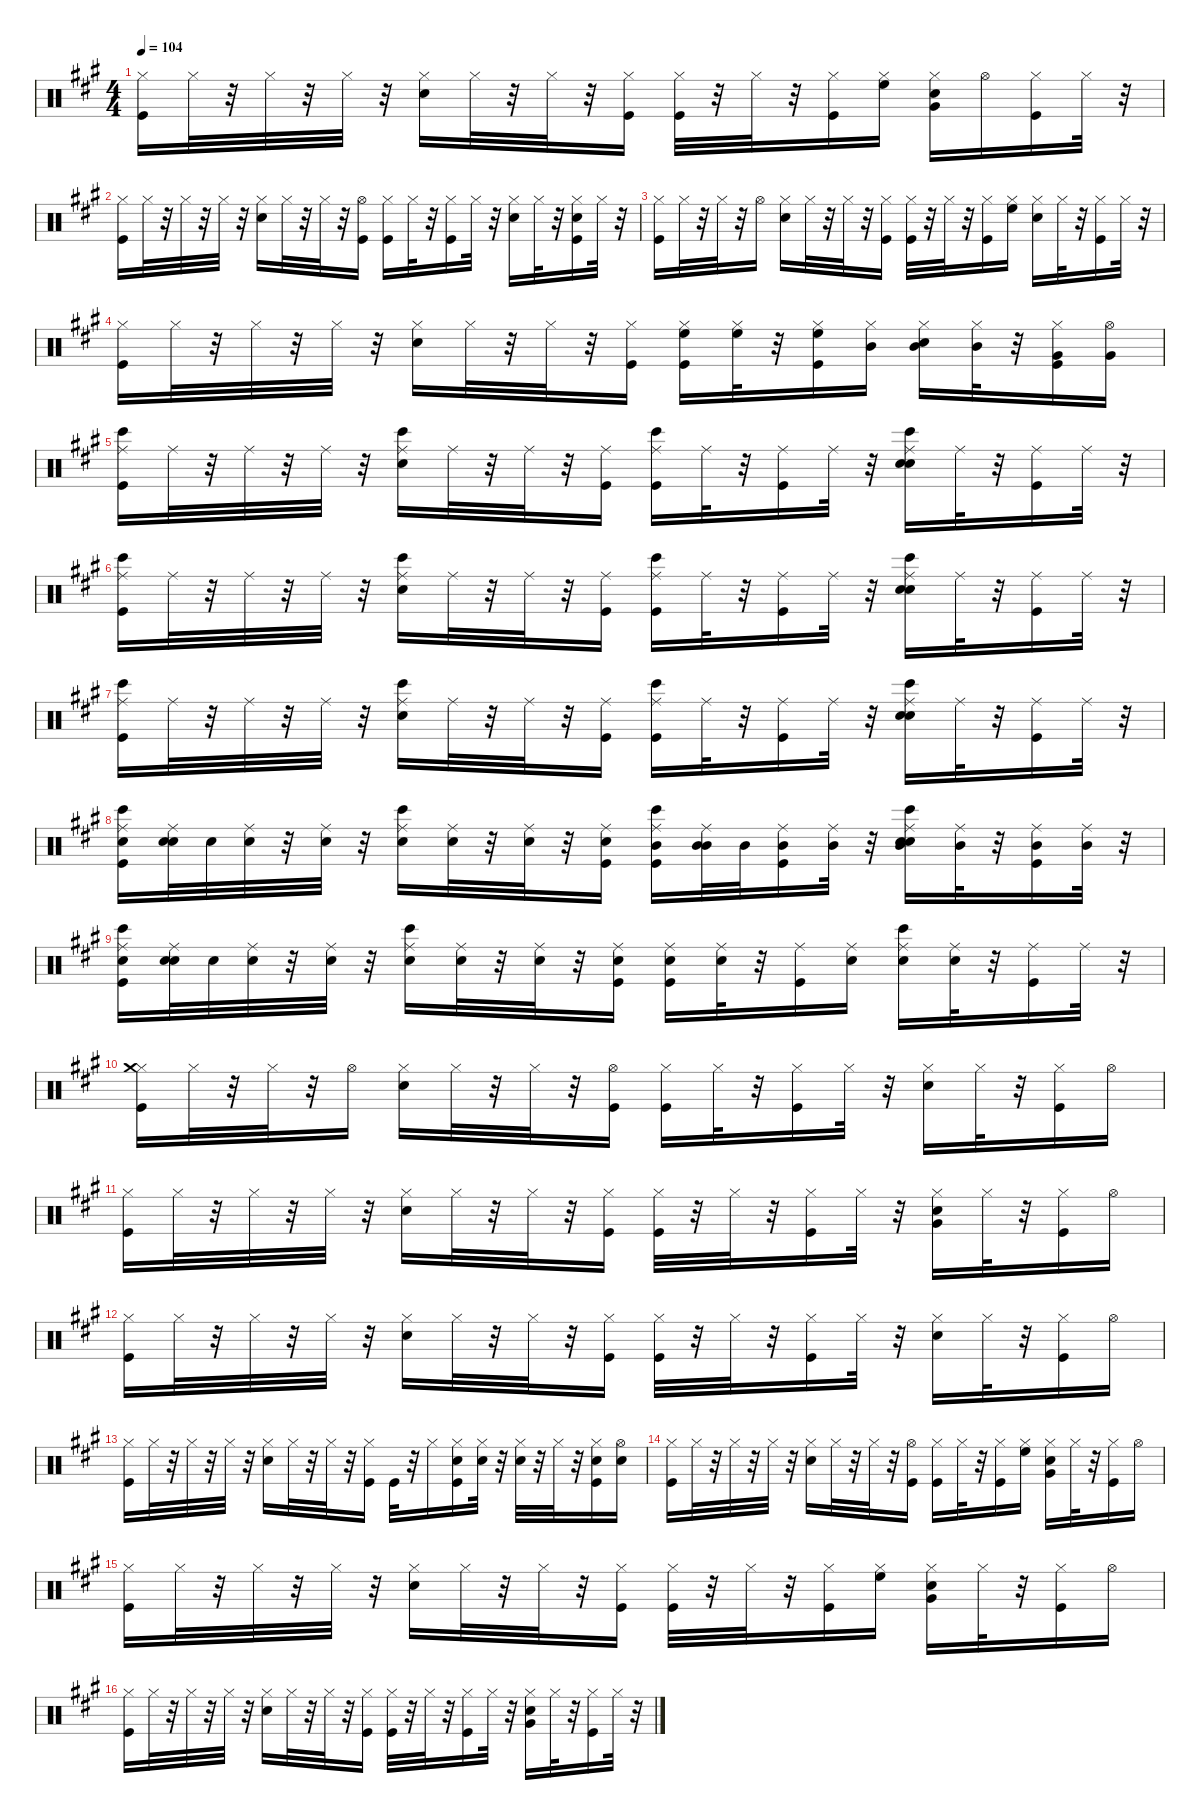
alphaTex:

\defaultSystemsLayout 4
\hideDynamics
\bracketExtendMode nobrackets
\singleTrackTrackNamePolicy hidden
\multiTrackTrackNamePolicy hidden
\otherSystemsTrackNameOrientation horizontal
\track ("Drums   " "drm.") {instrument percussion}
\staff {score}
\articulation defaults
\ts (4 4)
\tempo 104
\clef neutral
\ks a
("Kick (hit)"{acc forcenatural} "Hi-Hat (closed)"{acc forcenatural}).16{dy f beam Down} "Hi-Hat (closed)"{acc forcenatural}.32{dy mp beam Down} r.32{beam Down} "Hi-Hat (closed)"{acc forcenatural}.32{dy f beam Down} r.32{beam Down} "Hi-Hat (closed)"{acc forcenatural}.32{beam Down} r.32{beam Down} ("Snare (hit) 2"{acc forcenatural} "Hi-Hat (closed)"{acc forcenatural}).16{dy fff beam Down} "Hi-Hat (closed)"{acc forcenatural}.32{dy mp beam Down} r.32{beam Down} "Hi-Hat (closed)"{acc forcenatural}.32{dy f beam Down} r.32{beam Down} ("Kick (hit)"{acc forcenatural} "Hi-Hat (closed)"{acc forcenatural}).16{dy mf beam Down} ("Kick (hit)"{acc forcenatural} "Hi-Hat (closed)"{acc forcenatural}).32{dy f beam Down} r.32{beam Down} "Hi-Hat (closed)"{acc forcenatural}.32{dy mp beam Down} r.32{beam Down} ("Kick (hit)"{acc forcenatural} "Hi-Hat (closed)"{acc forcenatural}).16{dy f beam Down} ("Hi-Hat (closed)"{acc forcenatural} "High Floor Tom (hit)"{acc forcenatural}).16{beam Down} ("Snare (hit) 2"{acc forcenatural} "Hi-Hat (closed)"{acc forcenatural} "Very Low Tom (hit)"{acc forcenatural}).16{dy fff beam Down} "Hi-Hat (open)"{acc forcenatural}.16{dy mp beam Down} ("Kick (hit)"{acc forcenatural} "Hi-Hat (closed)"{acc forcenatural}).16{dy f beam Down} "Hi-Hat (closed)"{acc forcenatural}.32{beam Down} r.32{beam Down} |
("Kick (hit)"{acc forcenatural} "Hi-Hat (closed)"{acc forcenatural}).16{beam Down} "Hi-Hat (closed)"{acc forcenatural}.32{dy mp beam Down} r.32{beam Down} "Hi-Hat (closed)"{acc forcenatural}.32{dy f beam Down} r.32{beam Down} "Hi-Hat (closed)"{acc forcenatural}.32{beam Down} r.32{beam Down} ("Snare (hit) 2"{acc forcenatural} "Hi-Hat (closed)"{acc forcenatural}).16{dy fff beam Down} "Hi-Hat (closed)"{acc forcenatural}.32{dy mp beam Down} r.32{beam Down} "Hi-Hat (closed)"{acc forcenatural}.32{dy f beam Down} r.32{beam Down} ("Kick (hit)"{acc forcenatural} "Hi-Hat (open)"{acc forcenatural}).16{dy mf beam Down} ("Kick (hit)"{acc forcenatural} "Hi-Hat (closed)"{acc forcenatural}).16{dy f beam Down} "Hi-Hat (closed)"{acc forcenatural}.32{dy mp beam Down} r.32{beam Down} ("Kick (hit)"{acc forcenatural} "Hi-Hat (closed)"{acc forcenatural}).16{dy f beam Down} "Hi-Hat (closed)"{acc forcenatural}.32{beam Down} r.32{beam Down} ("Snare (hit) 2"{acc forcenatural} "Hi-Hat (closed)"{acc forcenatural}).16{dy fff beam Down} "Hi-Hat (closed)"{acc forcenatural}.32{dy mp beam Down} r.32{beam Down} ("Kick (hit)"{acc forcenatural} "Snare (hit) 2"{acc forcenatural} "Hi-Hat (closed)"{acc forcenatural}).16{dy f beam Down} "Hi-Hat (closed)"{acc forcenatural}.32{beam Down} r.32{beam Down} |
("Kick (hit)"{acc forcenatural} "Hi-Hat (closed)"{acc forcenatural}).16{beam Down} "Hi-Hat (closed)"{acc forcenatural}.32{dy mp beam Down} r.32{beam Down} "Hi-Hat (closed)"{acc forcenatural}.32{dy f beam Down} r.32{beam Down} "Hi-Hat (open)"{acc forcenatural}.16{beam Down} ("Snare (hit) 2"{acc forcenatural} "Hi-Hat (closed)"{acc forcenatural}).16{dy fff beam Down} "Hi-Hat (closed)"{acc forcenatural}.32{dy mp beam Down} r.32{beam Down} "Hi-Hat (closed)"{acc forcenatural}.32{dy f beam Down} r.32{beam Down} ("Kick (hit)"{acc forcenatural} "Hi-Hat (closed)"{acc forcenatural}).16{dy mf beam Down} ("Kick (hit)"{acc forcenatural} "Hi-Hat (closed)"{acc forcenatural}).32{dy f beam Down} r.32{beam Down} "Hi-Hat (closed)"{acc forcenatural}.32{dy mp beam Down} r.32{beam Down} ("Kick (hit)"{acc forcenatural} "Hi-Hat (closed)"{acc forcenatural}).16{dy f beam Down} ("Hi-Hat (closed)"{acc forcenatural} "High Floor Tom (hit)"{acc forcenatural}).16{beam Down} ("Snare (hit) 2"{acc forcenatural} "Hi-Hat (closed)"{acc forcenatural}).16{dy fff beam Down} "Hi-Hat (closed)"{acc forcenatural}.32{dy mp beam Down} r.32{beam Down} ("Kick (hit)"{acc forcenatural} "Hi-Hat (closed)"{acc forcenatural}).16{dy f beam Down} "Hi-Hat (closed)"{acc forcenatural}.32{beam Down} r.32{beam Down} |
("Kick (hit)"{acc forcenatural} "Hi-Hat (closed)"{acc forcenatural}).16{beam Down} "Hi-Hat (closed)"{acc forcenatural}.32{dy mp beam Down} r.32{beam Down} "Hi-Hat (closed)"{acc forcenatural}.32{dy f beam Down} r.32{beam Down} "Hi-Hat (closed)"{acc forcenatural}.32{beam Down} r.32{beam Down} ("Snare (hit) 2"{acc forcenatural} "Hi-Hat (closed)"{acc forcenatural}).16{dy fff beam Down} "Hi-Hat (closed)"{acc forcenatural}.32{dy mp beam Down} r.32{beam Down} "Hi-Hat (closed)"{acc forcenatural}.32{dy f beam Down} r.32{beam Down} ("Kick (hit)"{acc forcenatural} "Hi-Hat (closed)"{acc forcenatural}).16{dy mf beam Down} ("Kick (hit)"{acc forcenatural} "Hi-Hat (closed)"{acc forcenatural} "High Floor Tom (hit)"{acc forcenatural}).16{dy f beam Down} ("Hi-Hat (closed)"{acc forcenatural} "High Floor Tom (hit)"{acc forcenatural}).32{dy mp beam Down} r.32{beam Down} ("Kick (hit)"{acc forcenatural} "Hi-Hat (closed)"{acc forcenatural} "High Floor Tom (hit)"{acc forcenatural}).16{dy f beam Down} ("Hi-Hat (closed)"{acc forcenatural} "Mid Tom (hit)"{acc forcenatural}).16{beam Down} ("Snare (hit) 2"{acc forcenatural} "Hi-Hat (closed)"{acc forcenatural} "Mid Tom (hit)"{acc forcenatural}).16{dy fff beam Down} ("Hi-Hat (closed)"{acc forcenatural} "Mid Tom (hit)"{acc forcenatural}).32{dy mp beam Down} r.32{beam Down} ("Kick (hit)"{acc forcenatural} "Hi-Hat (closed)"{acc forcenatural} "Very Low Tom (hit)"{acc forcenatural}).16{dy f beam Down} ("Very Low Tom (hit)"{acc forcenatural} "Hi-Hat (open)"{acc forcenatural}).16{beam Down} |
("Kick (hit)"{acc forcenatural} "Ride (middle)"{acc forcenatural} "Bongo High (hit)"{acc forcenatural}).16{beam Down} "Ride (middle)"{acc forcenatural}.32{dy mp beam Down} r.32{beam Down} "Ride (middle)"{acc forcenatural}.32{beam Down} r.32{beam Down} "Ride (middle)"{acc forcenatural}.32{beam Down} r.32{beam Down} ("Snare (hit) 2"{acc forcenatural} "Ride (middle)"{acc forcenatural} "Bongo High (hit)"{acc forcenatural}).16{dy fff beam Down} "Ride (middle)"{acc forcenatural}.32{dy mp beam Down} r.32{beam Down} "Ride (middle)"{acc forcenatural}.32{beam Down} r.32{beam Down} ("Kick (hit)"{acc forcenatural} "Ride (middle)"{acc forcenatural}).16{dy mf beam Down} ("Kick (hit)"{acc forcenatural} "Ride (middle)"{acc forcenatural} "Bongo High (hit)"{acc forcenatural}).16{dy f beam Down} "Ride (middle)"{acc forcenatural}.32{dy mp beam Down} r.32{beam Down} ("Kick (hit)"{acc forcenatural} "Ride (middle)"{acc forcenatural}).16{dy f beam Down} "Ride (middle)"{acc forcenatural}.32{dy mp beam Down} r.32{beam Down} ("Hand Clap (hit)"{acc forcenatural} "Snare (hit) 2"{acc forcenatural} "Ride (middle)"{acc forcenatural} "Bongo High (hit)"{acc forcenatural}).16{dy f beam Down} "Ride (middle)"{acc forcenatural}.32{dy mp beam Down} r.32{beam Down} ("Kick (hit)"{acc forcenatural} "Ride (middle)"{acc forcenatural}).16{dy f beam Down} "Ride (middle)"{acc forcenatural}.32{dy mp beam Down} r.32{beam Down} |
("Kick (hit)"{acc forcenatural} "Ride (middle)"{acc forcenatural} "Bongo High (hit)"{acc forcenatural}).16{dy f beam Down} "Ride (middle)"{acc forcenatural}.32{dy mp beam Down} r.32{beam Down} "Ride (middle)"{acc forcenatural}.32{beam Down} r.32{beam Down} "Ride (middle)"{acc forcenatural}.32{beam Down} r.32{beam Down} ("Snare (hit) 2"{acc forcenatural} "Ride (middle)"{acc forcenatural} "Bongo High (hit)"{acc forcenatural}).16{dy fff beam Down} "Ride (middle)"{acc forcenatural}.32{dy mp beam Down} r.32{beam Down} "Ride (middle)"{acc forcenatural}.32{beam Down} r.32{beam Down} ("Kick (hit)"{acc forcenatural} "Ride (middle)"{acc forcenatural}).16{dy mf beam Down} ("Kick (hit)"{acc forcenatural} "Ride (middle)"{acc forcenatural} "Bongo High (hit)"{acc forcenatural}).16{dy f beam Down} "Ride (middle)"{acc forcenatural}.32{dy mp beam Down} r.32{beam Down} ("Kick (hit)"{acc forcenatural} "Ride (middle)"{acc forcenatural}).16{dy f beam Down} "Ride (middle)"{acc forcenatural}.32{dy mp beam Down} r.32{beam Down} ("Hand Clap (hit)"{acc forcenatural} "Snare (hit) 2"{acc forcenatural} "Ride (middle)"{acc forcenatural} "Bongo High (hit)"{acc forcenatural}).16{dy f beam Down} "Ride (middle)"{acc forcenatural}.32{dy mp beam Down} r.32{beam Down} ("Kick (hit)"{acc forcenatural} "Ride (middle)"{acc forcenatural}).16{dy f beam Down} "Ride (middle)"{acc forcenatural}.32{dy mp beam Down} r.32{beam Down} |
("Kick (hit)"{acc forcenatural} "Ride (middle)"{acc forcenatural} "Bongo High (hit)"{acc forcenatural}).16{dy f beam Down} "Ride (middle)"{acc forcenatural}.32{dy mp beam Down} r.32{beam Down} "Ride (middle)"{acc forcenatural}.32{beam Down} r.32{beam Down} "Ride (middle)"{acc forcenatural}.32{beam Down} r.32{beam Down} ("Snare (hit) 2"{acc forcenatural} "Ride (middle)"{acc forcenatural} "Bongo High (hit)"{acc forcenatural}).16{dy fff beam Down} "Ride (middle)"{acc forcenatural}.32{dy mp beam Down} r.32{beam Down} "Ride (middle)"{acc forcenatural}.32{beam Down} r.32{beam Down} ("Kick (hit)"{acc forcenatural} "Ride (middle)"{acc forcenatural}).16{dy mf beam Down} ("Kick (hit)"{acc forcenatural} "Ride (middle)"{acc forcenatural} "Bongo High (hit)"{acc forcenatural}).16{dy f beam Down} "Ride (middle)"{acc forcenatural}.32{dy mp beam Down} r.32{beam Down} ("Kick (hit)"{acc forcenatural} "Ride (middle)"{acc forcenatural}).16{dy f beam Down} "Ride (middle)"{acc forcenatural}.32{dy mp beam Down} r.32{beam Down} ("Hand Clap (hit)"{acc forcenatural} "Snare (hit) 2"{acc forcenatural} "Ride (middle)"{acc forcenatural} "Bongo High (hit)"{acc forcenatural}).16{dy f beam Down} "Ride (middle)"{acc forcenatural}.32{dy mp beam Down} r.32{beam Down} ("Kick (hit)"{acc forcenatural} "Ride (middle)"{acc forcenatural}).16{dy f beam Down} "Ride (middle)"{acc forcenatural}.32{dy mp beam Down} r.32{beam Down} |
("Kick (hit)"{acc forcenatural} "Snare (hit) 2"{acc forcenatural} "Ride (middle)"{acc forcenatural} "Bongo High (hit)"{acc forcenatural}).16{dy f beam Down} ("Snare (hit) 2"{acc forcenatural} "Ride (middle)"{acc forcenatural} "Snare (hit) 2"{acc forcenatural}).32{beam Down} "Snare (hit) 2"{acc forcenatural}.32{beam Down} ("Snare (hit) 2"{acc forcenatural} "Ride (middle)"{acc forcenatural}).32{dy ff beam Down} r.32{beam Down} ("Snare (hit) 2"{acc forcenatural} "Ride (middle)"{acc forcenatural}).32{dy f beam Down} r.32{beam Down} ("Snare (hit) 2"{acc forcenatural} "Ride (middle)"{acc forcenatural} "Bongo High (hit)"{acc forcenatural}).16{dy fff beam Down} ("Snare (hit) 2"{acc forcenatural} "Ride (middle)"{acc forcenatural}).32{dy f beam Down} r.32{beam Down} ("Snare (hit) 2"{acc forcenatural} "Ride (middle)"{acc forcenatural}).32{dy ff beam Down} r.32{beam Down} ("Kick (hit)"{acc forcenatural} "Snare (hit) 2"{acc forcenatural} "Ride (middle)"{acc forcenatural}).16{dy mf beam Down} ("Kick (hit)"{acc forcenatural} "Mid Tom (hit)"{acc forcenatural} "Ride (middle)"{acc forcenatural} "Bongo High (hit)"{acc forcenatural}).16{dy f beam Down} ("Mid Tom (hit)"{acc forcenatural} "Ride (middle)"{acc forcenatural} "Mid Tom (hit)"{acc forcenatural}).32{beam Down} "Mid Tom (hit)"{acc forcenatural}.32{beam Down} ("Kick (hit)"{acc forcenatural} "Mid Tom (hit)"{acc forcenatural} "Ride (middle)"{acc forcenatural}).16{beam Down} ("Mid Tom (hit)"{acc forcenatural} "Ride (middle)"{acc forcenatural}).32{beam Down} r.32{beam Down} ("Hand Clap (hit)"{acc forcenatural} "Snare (hit) 2"{acc forcenatural} "Mid Tom (hit)"{acc forcenatural} "Ride (middle)"{acc forcenatural} "Bongo High (hit)"{acc forcenatural}).16{beam Down} ("Mid Tom (hit)"{acc forcenatural} "Ride (middle)"{acc forcenatural}).32{beam Down} r.32{beam Down} ("Kick (hit)"{acc forcenatural} "Mid Tom (hit)"{acc forcenatural} "Ride (middle)"{acc forcenatural}).16{beam Down} ("Mid Tom (hit)"{acc forcenatural} "Ride (middle)"{acc forcenatural}).32{dy ff beam Down} r.32{beam Down} |
("Kick (hit)"{acc forcenatural} "Snare (hit) 2"{acc forcenatural} "Ride (middle)"{acc forcenatural} "Bongo High (hit)"{acc forcenatural}).16{dy f beam Down} ("Snare (hit) 2"{acc forcenatural} "Ride (middle)"{acc forcenatural} "Snare (hit) 2"{acc forcenatural}).32{beam Down} "Snare (hit) 2"{acc forcenatural}.32{beam Down} ("Snare (hit) 2"{acc forcenatural} "Ride (middle)"{acc forcenatural}).32{dy ff beam Down} r.32{beam Down} ("Snare (hit) 2"{acc forcenatural} "Ride (middle)"{acc forcenatural}).32{dy f beam Down} r.32{beam Down} ("Snare (hit) 2"{acc forcenatural} "Ride (middle)"{acc forcenatural} "Bongo High (hit)"{acc forcenatural}).16{dy fff beam Down} ("Snare (hit) 2"{acc forcenatural} "Ride (middle)"{acc forcenatural}).32{dy f beam Down} r.32{beam Down} ("Snare (hit) 2"{acc forcenatural} "Ride (middle)"{acc forcenatural}).32{dy ff beam Down} r.32{beam Down} ("Kick (hit)"{acc forcenatural} "Snare (hit) 2"{acc forcenatural} "Ride (middle)"{acc forcenatural}).16{dy mf beam Down} ("Kick (hit)"{acc forcenatural} "Snare (hit) 2"{acc forcenatural} "Ride (middle)"{acc forcenatural}).16{dy f beam Down} ("Snare (hit) 2"{acc forcenatural} "Ride (middle)"{acc forcenatural}).32{beam Down} r.32{beam Down} ("Kick (hit)"{acc forcenatural} "Ride (middle)"{acc forcenatural}).16{beam Down} ("Snare (hit) 2"{acc forcenatural} "Ride (middle)"{acc forcenatural}).16{beam Down} ("Snare (hit) 2"{acc forcenatural} "Ride (middle)"{acc forcenatural} "Bongo High (hit)"{acc forcenatural}).16{dy fff beam Down} ("Snare (hit) 2"{acc forcenatural} "Ride (middle)"{acc forcenatural}).32{dy f beam Down} r.32{beam Down} ("Kick (hit)"{acc forcenatural} "Ride (middle)"{acc forcenatural}).16{beam Down} "Ride (middle)"{acc forcenatural}.32{dy mp beam Down} r.32{beam Down} |
("Kick (hit)"{acc forcenatural} "Hi-Hat (closed)"{acc forcenatural} "Crash medium (hit)"{acc forcenatural}).16{dy f beam Down} "Hi-Hat (closed)"{acc forcenatural}.32{dy mp beam Down} r.32{beam Down} "Hi-Hat (closed)"{acc forcenatural}.32{dy f beam Down} r.32{beam Down} "Hi-Hat (open)"{acc forcenatural}.16{beam Down} ("Snare (hit) 2"{acc forcenatural} "Hi-Hat (closed)"{acc forcenatural}).16{dy fff beam Down} "Hi-Hat (closed)"{acc forcenatural}.32{dy mp beam Down} r.32{beam Down} "Hi-Hat (closed)"{acc forcenatural}.32{dy f beam Down} r.32{beam Down} ("Kick (hit)"{acc forcenatural} "Hi-Hat (open)"{acc forcenatural}).16{dy mf beam Down} ("Kick (hit)"{acc forcenatural} "Hi-Hat (closed)"{acc forcenatural}).16{dy f beam Down} "Hi-Hat (closed)"{acc forcenatural}.32{dy mp beam Down} r.32{beam Down} ("Kick (hit)"{acc forcenatural} "Hi-Hat (closed)"{acc forcenatural}).16{dy f beam Down} "Hi-Hat (closed)"{acc forcenatural}.32{beam Down} r.32{beam Down} ("Snare (hit) 2"{acc forcenatural} "Hi-Hat (closed)"{acc forcenatural}).16{dy fff beam Down} "Hi-Hat (closed)"{acc forcenatural}.32{dy mp beam Down} r.32{beam Down} ("Kick (hit)"{acc forcenatural} "Hi-Hat (closed)"{acc forcenatural}).16{dy f beam Down} "Hi-Hat (open)"{acc forcenatural}.16{beam Down} |
("Kick (hit)"{acc forcenatural} "Hi-Hat (closed)"{acc forcenatural}).16{beam Down} "Hi-Hat (closed)"{acc forcenatural}.32{dy mp beam Down} r.32{beam Down} "Hi-Hat (closed)"{acc forcenatural}.32{dy f beam Down} r.32{beam Down} "Hi-Hat (closed)"{acc forcenatural}.32{beam Down} r.32{beam Down} ("Snare (hit) 2"{acc forcenatural} "Hi-Hat (closed)"{acc forcenatural}).16{dy fff beam Down} "Hi-Hat (closed)"{acc forcenatural}.32{dy mp beam Down} r.32{beam Down} "Hi-Hat (closed)"{acc forcenatural}.32{dy f beam Down} r.32{beam Down} ("Kick (hit)"{acc forcenatural} "Hi-Hat (closed)"{acc forcenatural}).16{dy mf beam Down} ("Kick (hit)"{acc forcenatural} "Hi-Hat (closed)"{acc forcenatural}).32{dy f beam Down} r.32{beam Down} "Hi-Hat (closed)"{acc forcenatural}.32{dy mp beam Down} r.32{beam Down} ("Kick (hit)"{acc forcenatural} "Hi-Hat (closed)"{acc forcenatural}).16{dy f beam Down} "Hi-Hat (closed)"{acc forcenatural}.32{beam Down} r.32{beam Down} ("Snare (hit) 2"{acc forcenatural} "Hi-Hat (closed)"{acc forcenatural} "Very Low Tom (hit)"{acc forcenatural}).16{dy fff beam Down} "Hi-Hat (closed)"{acc forcenatural}.32{dy mp beam Down} r.32{beam Down} ("Kick (hit)"{acc forcenatural} "Hi-Hat (closed)"{acc forcenatural}).16{dy f beam Down} "Hi-Hat (open)"{acc forcenatural}.16{beam Down} |
("Kick (hit)"{acc forcenatural} "Hi-Hat (closed)"{acc forcenatural}).16{beam Down} "Hi-Hat (closed)"{acc forcenatural}.32{dy mp beam Down} r.32{beam Down} "Hi-Hat (closed)"{acc forcenatural}.32{dy f beam Down} r.32{beam Down} "Hi-Hat (closed)"{acc forcenatural}.32{beam Down} r.32{beam Down} ("Snare (hit) 2"{acc forcenatural} "Hi-Hat (closed)"{acc forcenatural}).16{dy fff beam Down} "Hi-Hat (closed)"{acc forcenatural}.32{dy mp beam Down} r.32{beam Down} "Hi-Hat (closed)"{acc forcenatural}.32{dy f beam Down} r.32{beam Down} ("Kick (hit)"{acc forcenatural} "Hi-Hat (closed)"{acc forcenatural}).16{dy mf beam Down} ("Kick (hit)"{acc forcenatural} "Hi-Hat (closed)"{acc forcenatural}).32{dy f beam Down} r.32{beam Down} "Hi-Hat (closed)"{acc forcenatural}.32{dy mp beam Down} r.32{beam Down} ("Kick (hit)"{acc forcenatural} "Hi-Hat (closed)"{acc forcenatural}).16{dy f beam Down} "Hi-Hat (closed)"{acc forcenatural}.32{beam Down} r.32{beam Down} ("Snare (hit) 2"{acc forcenatural} "Hi-Hat (closed)"{acc forcenatural}).16{dy fff beam Down} "Hi-Hat (closed)"{acc forcenatural}.32{dy mp beam Down} r.32{beam Down} ("Kick (hit)"{acc forcenatural} "Hi-Hat (closed)"{acc forcenatural}).16{dy f beam Down} "Hi-Hat (open)"{acc forcenatural}.16{beam Down} |
("Kick (hit)"{acc forcenatural} "Hi-Hat (closed)"{acc forcenatural}).16{beam Down} "Hi-Hat (closed)"{acc forcenatural}.32{dy mp beam Down} r.32{beam Down} "Hi-Hat (closed)"{acc forcenatural}.32{dy f beam Down} r.32{beam Down} "Hi-Hat (closed)"{acc forcenatural}.32{beam Down} r.32{beam Down} ("Snare (hit) 2"{acc forcenatural} "Hi-Hat (closed)"{acc forcenatural}).16{dy fff beam Down} "Hi-Hat (closed)"{acc forcenatural}.32{dy mp beam Down} r.32{beam Down} "Hi-Hat (closed)"{acc forcenatural}.32{dy f beam Down} r.32{beam Down} ("Kick (hit)"{acc forcenatural} "Hi-Hat (closed)"{acc forcenatural}).16{dy mf beam Down} "Kick (hit)"{acc forcenatural}.32{dy f beam Down} r.32{beam Down} "Hi-Hat (closed)"{acc forcenatural}.16{dy mp beam Down} ("Kick (hit)"{acc forcenatural} "Snare (hit) 2"{acc forcenatural} "Hi-Hat (closed)"{acc forcenatural}).16{dy f beam Down} ("Snare (hit) 2"{acc forcenatural} "Hi-Hat (closed)"{acc forcenatural}).32{beam Down} r.32{beam Down} ("Snare (hit) 2"{acc forcenatural} "Hi-Hat (closed)"{acc forcenatural}).32{dy fff beam Down} r.32{beam Down} "Hi-Hat (closed)"{acc forcenatural}.32{dy mp beam Down} r.32{beam Down} ("Kick (hit)"{acc forcenatural} "Snare (hit) 2"{acc forcenatural} "Hi-Hat (closed)"{acc forcenatural}).16{dy f beam Down} ("Snare (hit) 2"{acc forcenatural} "Hi-Hat (open)"{acc forcenatural}).16{dy ff beam Down} |
("Kick (hit)"{acc forcenatural} "Hi-Hat (closed)"{acc forcenatural}).16{dy f beam Down} "Hi-Hat (closed)"{acc forcenatural}.32{dy mp beam Down} r.32{beam Down} "Hi-Hat (closed)"{acc forcenatural}.32{dy f beam Down} r.32{beam Down} "Hi-Hat (closed)"{acc forcenatural}.32{beam Down} r.32{beam Down} ("Snare (hit) 2"{acc forcenatural} "Hi-Hat (closed)"{acc forcenatural}).16{dy fff beam Down} "Hi-Hat (closed)"{acc forcenatural}.32{dy mp beam Down} r.32{beam Down} "Hi-Hat (closed)"{acc forcenatural}.32{dy f beam Down} r.32{beam Down} ("Kick (hit)"{acc forcenatural} "Hi-Hat (open)"{acc forcenatural}).16{dy mf beam Down} ("Kick (hit)"{acc forcenatural} "Hi-Hat (closed)"{acc forcenatural}).16{dy f beam Down} "Hi-Hat (closed)"{acc forcenatural}.32{dy mp beam Down} r.32{beam Down} ("Kick (hit)"{acc forcenatural} "Hi-Hat (closed)"{acc forcenatural}).16{dy f beam Down} ("Hi-Hat (closed)"{acc forcenatural} "High Floor Tom (hit)"{acc forcenatural}).16{beam Down} ("Snare (hit) 2"{acc forcenatural} "Hi-Hat (closed)"{acc forcenatural} "Very Low Tom (hit)"{acc forcenatural}).16{dy fff beam Down} "Hi-Hat (closed)"{acc forcenatural}.32{dy mp beam Down} r.32{beam Down} ("Kick (hit)"{acc forcenatural} "Hi-Hat (closed)"{acc forcenatural}).16{dy f beam Down} "Hi-Hat (open)"{acc forcenatural}.16{beam Down} |
("Kick (hit)"{acc forcenatural} "Hi-Hat (closed)"{acc forcenatural}).16{beam Down} "Hi-Hat (closed)"{acc forcenatural}.32{dy mp beam Down} r.32{beam Down} "Hi-Hat (closed)"{acc forcenatural}.32{dy f beam Down} r.32{beam Down} "Hi-Hat (closed)"{acc forcenatural}.32{beam Down} r.32{beam Down} ("Snare (hit) 2"{acc forcenatural} "Hi-Hat (closed)"{acc forcenatural}).16{dy fff beam Down} "Hi-Hat (closed)"{acc forcenatural}.32{dy mp beam Down} r.32{beam Down} "Hi-Hat (closed)"{acc forcenatural}.32{dy f beam Down} r.32{beam Down} ("Kick (hit)"{acc forcenatural} "Hi-Hat (closed)"{acc forcenatural}).16{dy mf beam Down} ("Kick (hit)"{acc forcenatural} "Hi-Hat (closed)"{acc forcenatural}).32{dy f beam Down} r.32{beam Down} "Hi-Hat (closed)"{acc forcenatural}.32{dy mp beam Down} r.32{beam Down} ("Kick (hit)"{acc forcenatural} "Hi-Hat (closed)"{acc forcenatural}).16{dy f beam Down} ("Hi-Hat (closed)"{acc forcenatural} "High Floor Tom (hit)"{acc forcenatural}).16{beam Down} ("Snare (hit) 2"{acc forcenatural} "Hi-Hat (closed)"{acc forcenatural} "Very Low Tom (hit)"{acc forcenatural}).16{dy fff beam Down} "Hi-Hat (closed)"{acc forcenatural}.32{dy mp beam Down} r.32{beam Down} ("Kick (hit)"{acc forcenatural} "Hi-Hat (closed)"{acc forcenatural}).16{dy f beam Down} "Hi-Hat (open)"{acc forcenatural}.16{beam Down} |
("Kick (hit)"{acc forcenatural} "Hi-Hat (closed)"{acc forcenatural}).16{beam Down} "Hi-Hat (closed)"{acc forcenatural}.32{dy mp beam Down} r.32{beam Down} "Hi-Hat (closed)"{acc forcenatural}.32{dy f beam Down} r.32{beam Down} "Hi-Hat (closed)"{acc forcenatural}.32{beam Down} r.32{beam Down} ("Snare (hit) 2"{acc forcenatural} "Hi-Hat (closed)"{acc forcenatural}).16{dy fff beam Down} "Hi-Hat (closed)"{acc forcenatural}.32{dy mp beam Down} r.32{beam Down} "Hi-Hat (closed)"{acc forcenatural}.32{dy f beam Down} r.32{beam Down} ("Kick (hit)"{acc forcenatural} "Hi-Hat (closed)"{acc forcenatural}).16{dy mf beam Down} ("Kick (hit)"{acc forcenatural} "Hi-Hat (closed)"{acc forcenatural}).32{dy f beam Down} r.32{beam Down} "Hi-Hat (closed)"{acc forcenatural}.32{dy mp beam Down} r.32{beam Down} ("Kick (hit)"{acc forcenatural} "Hi-Hat (closed)"{acc forcenatural}).16{dy f beam Down} "Hi-Hat (closed)"{acc forcenatural}.32{beam Down} r.32{beam Down} ("Snare (hit) 2"{acc forcenatural} "Hi-Hat (closed)"{acc forcenatural} "Very Low Tom (hit)"{acc forcenatural}).16{dy fff beam Down} "Hi-Hat (closed)"{acc forcenatural}.32{dy mp beam Down} r.32{beam Down} ("Kick (hit)"{acc forcenatural} "Hi-Hat (closed)"{acc forcenatural}).16{dy f beam Down} "Hi-Hat (closed)"{acc forcenatural}.32{beam Down} r.32{beam Down}
